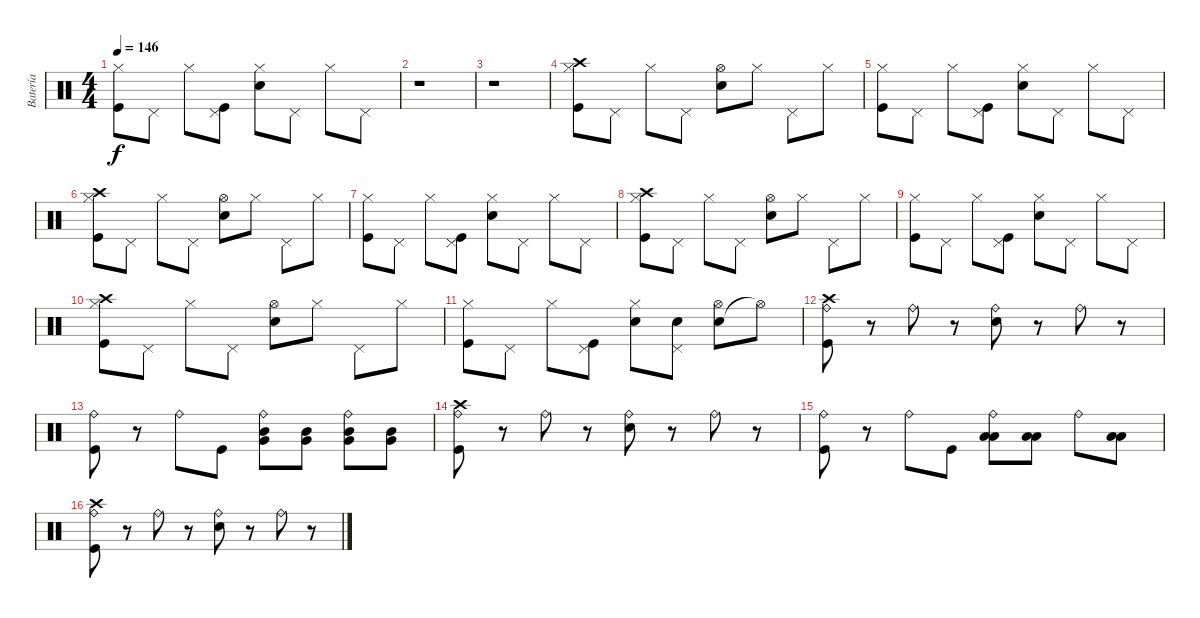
\track ("Batería" "Batería") {instrument percussion}
\staff {score}
\articulation defaults
\ts (4 4)
\tempo 146
\clef neutral
\ks c
("Kick (hit)" "Hi-Hat (closed)").8{dy f} "Pedal Hi-Hat (hit)".8 "Hi-Hat (closed)".8 ("Kick (hit)" "Pedal Hi-Hat (hit)").8 ("Electric Snare (hit)" "Hi-Hat (closed)").8 "Pedal Hi-Hat (hit)".8 "Hi-Hat (closed)".8 "Pedal Hi-Hat (hit)".8 |
r.1 |
r.1 |
("Crash high (hit)" "Kick (hit)" "Hi-Hat (closed)").8 "Pedal Hi-Hat (hit)".8 "Hi-Hat (closed)".8 "Pedal Hi-Hat (hit)".8 ("Electric Snare (hit)" "Hi-Hat (open)").8 "Hi-Hat (closed)".8 "Pedal Hi-Hat (hit)".8 "Hi-Hat (closed)".8 |
("Kick (hit)" "Hi-Hat (closed)").8 "Pedal Hi-Hat (hit)".8 "Hi-Hat (closed)".8 ("Kick (hit)" "Pedal Hi-Hat (hit)").8 ("Electric Snare (hit)" "Hi-Hat (closed)").8 "Pedal Hi-Hat (hit)".8 "Hi-Hat (closed)".8 "Pedal Hi-Hat (hit)".8 |
("Crash high (hit)" "Kick (hit)" "Hi-Hat (closed)").8 "Pedal Hi-Hat (hit)".8 "Hi-Hat (closed)".8 "Pedal Hi-Hat (hit)".8 ("Electric Snare (hit)" "Hi-Hat (open)").8 "Hi-Hat (closed)".8 "Pedal Hi-Hat (hit)".8 "Hi-Hat (closed)".8 |
("Kick (hit)" "Hi-Hat (closed)").8 "Pedal Hi-Hat (hit)".8 "Hi-Hat (closed)".8 ("Kick (hit)" "Pedal Hi-Hat (hit)").8 ("Electric Snare (hit)" "Hi-Hat (closed)").8 "Pedal Hi-Hat (hit)".8 "Hi-Hat (closed)".8 "Pedal Hi-Hat (hit)".8 |
("Crash high (hit)" "Kick (hit)" "Hi-Hat (closed)").8 "Pedal Hi-Hat (hit)".8 "Hi-Hat (closed)".8 "Pedal Hi-Hat (hit)".8 ("Electric Snare (hit)" "Hi-Hat (open)").8 "Hi-Hat (closed)".8 "Pedal Hi-Hat (hit)".8 "Hi-Hat (closed)".8 |
("Kick (hit)" "Hi-Hat (closed)").8 "Pedal Hi-Hat (hit)".8 "Hi-Hat (closed)".8 ("Kick (hit)" "Pedal Hi-Hat (hit)").8 ("Electric Snare (hit)" "Hi-Hat (closed)").8 "Pedal Hi-Hat (hit)".8 "Hi-Hat (closed)".8 "Pedal Hi-Hat (hit)".8 |
("Crash high (hit)" "Kick (hit)" "Hi-Hat (closed)").8 "Pedal Hi-Hat (hit)".8 "Hi-Hat (closed)".8 "Pedal Hi-Hat (hit)".8 ("Electric Snare (hit)" "Hi-Hat (open)").8 "Hi-Hat (closed)".8 "Pedal Hi-Hat (hit)".8 "Hi-Hat (closed)".8 |
("Kick (hit)" "Hi-Hat (closed)").8 "Pedal Hi-Hat (hit)".8 "Hi-Hat (closed)".8 ("Kick (hit)" "Pedal Hi-Hat (hit)").8 ("Electric Snare (hit)" "Hi-Hat (closed)").8 ("Electric Snare (hit)" "Pedal Hi-Hat (hit)").8 ("Electric Snare (hit)" "Hi-Hat (open)").8 "Hi-Hat (open)"{t}.8 |
("Crash high (hit)" "Kick (hit)" "Ride (bell)").8 r.8 "Ride (bell)".8 r.8 ("Electric Snare (hit)" "Ride (bell)").8 r.8 "Ride (bell)".8 r.8 |
("Kick (hit)" "Ride (bell)").8 r.8 "Ride (bell)".8 "Kick (hit)".8 ("Very Low Tom (hit)" "Mid Tom (hit)" "Ride (bell)").8 ("Very Low Tom (hit)" "Mid Tom (hit)").8 ("Very Low Tom (hit)" "Mid Tom (hit)" "Ride (bell)").8 ("Very Low Tom (hit)" "Mid Tom (hit)").8 |
("Crash high (hit)" "Kick (hit)" "Ride (bell)").8 r.8 "Ride (bell)".8 r.8 ("Electric Snare (hit)" "Ride (bell)").8 r.8 "Ride (bell)".8 r.8 |
("Kick (hit)" "Ride (bell)").8 r.8 "Ride (bell)".8 "Kick (hit)".8 ("Low Tom (hit)" "Low Tom (hit)" "Ride (bell)").8 ("Low Tom (hit)" "Low Tom (hit)").8 "Ride (bell)".8 ("Low Tom (hit)" "Low Tom (hit)").8 |
("Crash high (hit)" "Kick (hit)" "Ride (bell)").8 r.8 "Ride (bell)".8 r.8 ("Electric Snare (hit)" "Ride (bell)").8 r.8 "Ride (bell)".8 r.8
